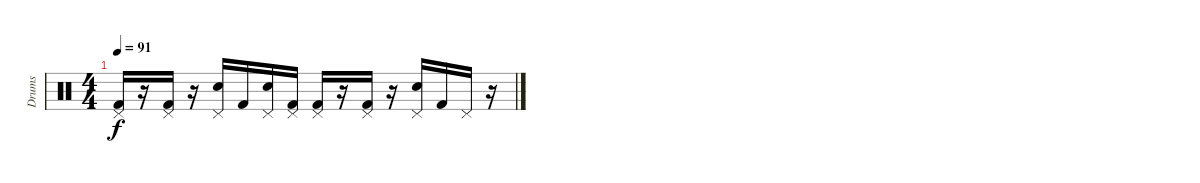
\track ("Drums" "Drums") {instrument percussion}
\staff {score}
\articulation defaults
\ts (4 4)
\tempo 91
\clef neutral
\ks c
("Pedal Hi-Hat (hit)" "Kick (hit) 2").16{dy f} r.16 ("Pedal Hi-Hat (hit)" "Kick (hit) 2").16 r.16 ("Pedal Hi-Hat (hit)" "Snare (hit) 2").16 "Kick (hit) 2".16 ("Pedal Hi-Hat (hit)" "Snare (hit) 2").16 ("Pedal Hi-Hat (hit)" "Kick (hit) 2").16 ("Pedal Hi-Hat (hit)" "Kick (hit) 2").16 r.16 ("Pedal Hi-Hat (hit)" "Kick (hit) 2").16 r.16 ("Pedal Hi-Hat (hit)" "Snare (hit) 2").16 "Kick (hit) 2".16 "Pedal Hi-Hat (hit)".16 r.16
